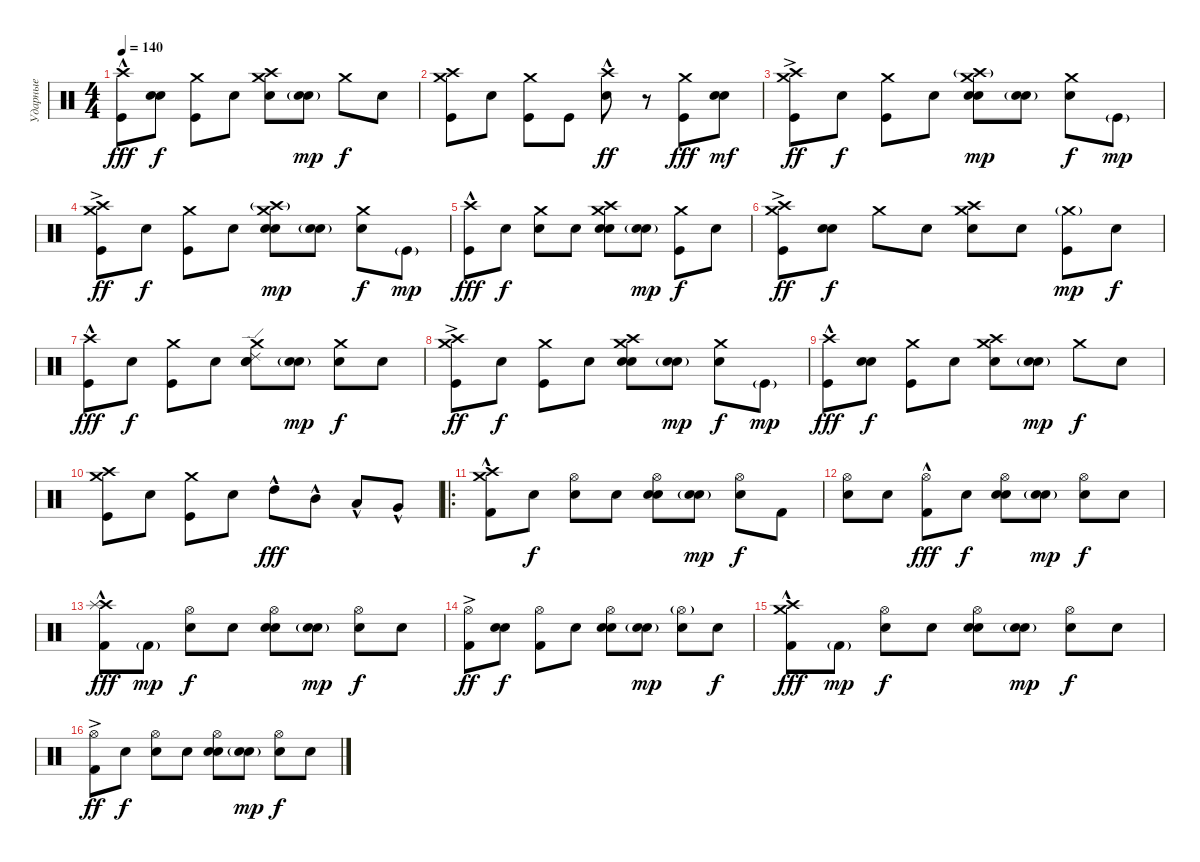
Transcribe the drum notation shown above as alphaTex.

\track ("Ударные" "Ударные") {instrument percussion}
\staff
\articulation defaults
\ts (4 4)
\tempo 140
\clef neutral
\ks c
("Crash high (hit)" "Kick (hit)"{hac}).8{dy fff} ("Electric Snare (hit)" "Snare (hit)").8{dy f} ("Crash medium (hit)" "Kick (hit)").8 "Snare (hit)".8 ("Crash high (hit)" "Crash medium (hit)" "Electric Snare (hit)").8 ("Electric Snare (hit)"{g} "Snare (hit)").8{dy mp} "Crash medium (hit)".8{dy f} "Snare (hit)".8 |
("Crash high (hit)" "Crash medium (hit)" "Kick (hit)").8 "Electric Snare (hit)".8 ("Crash medium (hit)" "Kick (hit)").8 "Kick (hit)".8 ("Crash high (hit)" "Electric Snare (hit)"{hac}).8{dy ff} r.8 ("Crash medium (hit)" "Kick (hit)").8{dy fff} ("Electric Snare (hit)" "Snare (hit)").8{dy mf} |
("Crash high (hit)" "Crash medium (hit)" "Kick (hit)"{ac}).8{dy ff} "Snare (hit)".8{dy f} ("Crash medium (hit)" "Kick (hit)").8 "Snare (hit)".8 ("Crash high (hit)"{g} "Crash medium (hit)" "Electric Snare (hit)" "Snare (hit)").8{dy mp} ("Electric Snare (hit)"{g} "Snare (hit)").8 ("Crash medium (hit)" "Snare (hit)").8{dy f} "Kick (hit)"{g}.8{dy mp} |
("Crash high (hit)" "Crash medium (hit)" "Kick (hit)"{ac}).8{dy ff} "Snare (hit)".8{dy f} ("Crash medium (hit)" "Kick (hit)").8 "Snare (hit)".8 ("Crash high (hit)"{g} "Crash medium (hit)" "Electric Snare (hit)" "Snare (hit)").8{dy mp} ("Electric Snare (hit)"{g} "Snare (hit)").8 ("Crash medium (hit)" "Snare (hit)").8{dy f} "Kick (hit)"{g}.8{dy mp} |
("Crash high (hit)" "Kick (hit)"{hac}).8{dy fff} "Snare (hit)".8{dy f} ("Crash medium (hit)" "Snare (hit)").8 "Snare (hit)".8 ("Crash high (hit)" "Crash medium (hit)" "Electric Snare (hit)" "Snare (hit)").8 ("Electric Snare (hit)"{g} "Snare (hit)").8{dy mp} ("Crash medium (hit)" "Kick (hit)").8{dy f} "Snare (hit)".8 |
("Crash high (hit)" "Crash medium (hit)" "Kick (hit)"{ac}).8{dy ff} ("Snare (hit)" "Electric Snare (hit)").8{dy f} "Crash medium (hit)".8 "Snare (hit)".8 ("Crash high (hit)" "Crash medium (hit)" "Electric Snare (hit)").8 "Snare (hit)".8 ("Crash medium (hit)"{g} "Kick (hit)").8{dy mp} "Snare (hit)".8{dy f} |
("Crash high (hit)" "Kick (hit)"{hac}).8{dy fff} "Snare (hit)".8{dy f} ("Crash medium (hit)" "Kick (hit)").8 "Snare (hit)".8 ("Ride (edge) 2" "Crash medium (hit)" "Electric Snare (hit)" "Snare (hit)").8 ("Electric Snare (hit)"{g} "Snare (hit)").8{dy mp} ("Crash medium (hit)" "Snare (hit)").8{dy f} "Snare (hit)".8 |
("Crash high (hit)" "Crash medium (hit)" "Kick (hit)"{ac}).8{dy ff} "Snare (hit)".8{dy f} ("Crash medium (hit)" "Kick (hit)").8 "Snare (hit)".8 ("Crash high (hit)" "Crash medium (hit)" "Electric Snare (hit)" "Snare (hit)").8 ("Electric Snare (hit)"{g} "Snare (hit)").8{dy mp} ("Crash medium (hit)" "Snare (hit)").8{dy f} "Kick (hit)"{g}.8{dy mp} |
("Crash high (hit)" "Kick (hit)"{hac}).8{dy fff} ("Electric Snare (hit)" "Snare (hit)").8{dy f} ("Crash medium (hit)" "Kick (hit)").8 "Snare (hit)".8 ("Crash high (hit)" "Crash medium (hit)" "Electric Snare (hit)").8 ("Electric Snare (hit)"{g} "Snare (hit)").8{dy mp} "Crash medium (hit)".8{dy f} "Snare (hit)".8 |
("Crash high (hit)" "Crash medium (hit)" "Kick (hit)").8 "Electric Snare (hit)".8 ("Crash medium (hit)" "Kick (hit)").8 "Snare (hit)".8 "High Tom (hit)"{hac}.8{dy fff} "Mid Tom (hit)"{hac}.8 "Low Tom (hit)"{hac}.8 "Very Low Tom (hit)"{hac}.8 |
\ro
("Crash high (hit)" "Crash medium (hit)" "Kick (hit) 2"{hac}).8 "Snare (hit)".8{dy f} ("Hi-Hat (open)" "Snare (hit)").8 "Snare (hit)".8 ("Hi-Hat (open)" "Electric Snare (hit)" "Snare (hit)").8 ("Electric Snare (hit)"{g} "Snare (hit)").8{dy mp} ("Hi-Hat (open)" "Snare (hit)").8{dy f} "Kick (hit) 2".8 |
("Hi-Hat (open)" "Snare (hit)").8 "Snare (hit)".8 ("Hi-Hat (open)" "Kick (hit) 2"{hac}).8{dy fff} "Snare (hit)".8{dy f} ("Hi-Hat (open)" "Electric Snare (hit)" "Snare (hit)").8 ("Electric Snare (hit)"{g} "Snare (hit)").8{dy mp} ("Hi-Hat (open)" "Snare (hit)").8{dy f} "Snare (hit)".8 |
("Crash high (hit)" "Splash (hit)" "Kick (hit) 2"{hac}).8{dy fff} "Kick (hit) 2"{g}.8{dy mp} ("Hi-Hat (open)" "Snare (hit)").8{dy f} "Snare (hit)".8 ("Hi-Hat (open)" "Electric Snare (hit)" "Snare (hit)").8 ("Electric Snare (hit)"{g} "Snare (hit)").8{dy mp} ("Hi-Hat (open)" "Snare (hit)").8{dy f} "Snare (hit)".8 |
("Hi-Hat (open)" "Kick (hit) 2"{ac}).8{dy ff} ("Electric Snare (hit)" "Snare (hit)").8{dy f} ("Hi-Hat (open)" "Kick (hit) 2").8 "Snare (hit)".8 ("Hi-Hat (open)" "Electric Snare (hit)" "Snare (hit)").8 ("Electric Snare (hit)"{g} "Snare (hit)").8{dy mp} ("Hi-Hat (open)"{g} "Snare (hit)").8 "Snare (hit)".8{dy f} |
("Crash high (hit)" "Crash medium (hit)" "Kick (hit) 2"{hac}).8{dy fff} "Kick (hit) 2"{g}.8{dy mp} ("Hi-Hat (open)" "Snare (hit)").8{dy f} "Snare (hit)".8 ("Hi-Hat (open)" "Electric Snare (hit)" "Snare (hit)").8 ("Electric Snare (hit)"{g} "Snare (hit)").8{dy mp} ("Hi-Hat (open)" "Snare (hit)").8{dy f} "Snare (hit)".8 |
("Hi-Hat (open)" "Kick (hit) 2"{ac}).8{dy ff} "Snare (hit)".8{dy f} ("Hi-Hat (open)" "Snare (hit)").8 "Snare (hit)".8 ("Hi-Hat (open)" "Electric Snare (hit)" "Snare (hit)").8 ("Electric Snare (hit)"{g} "Snare (hit)").8{dy mp} ("Hi-Hat (open)" "Snare (hit)").8{dy f} "Snare (hit)".8
